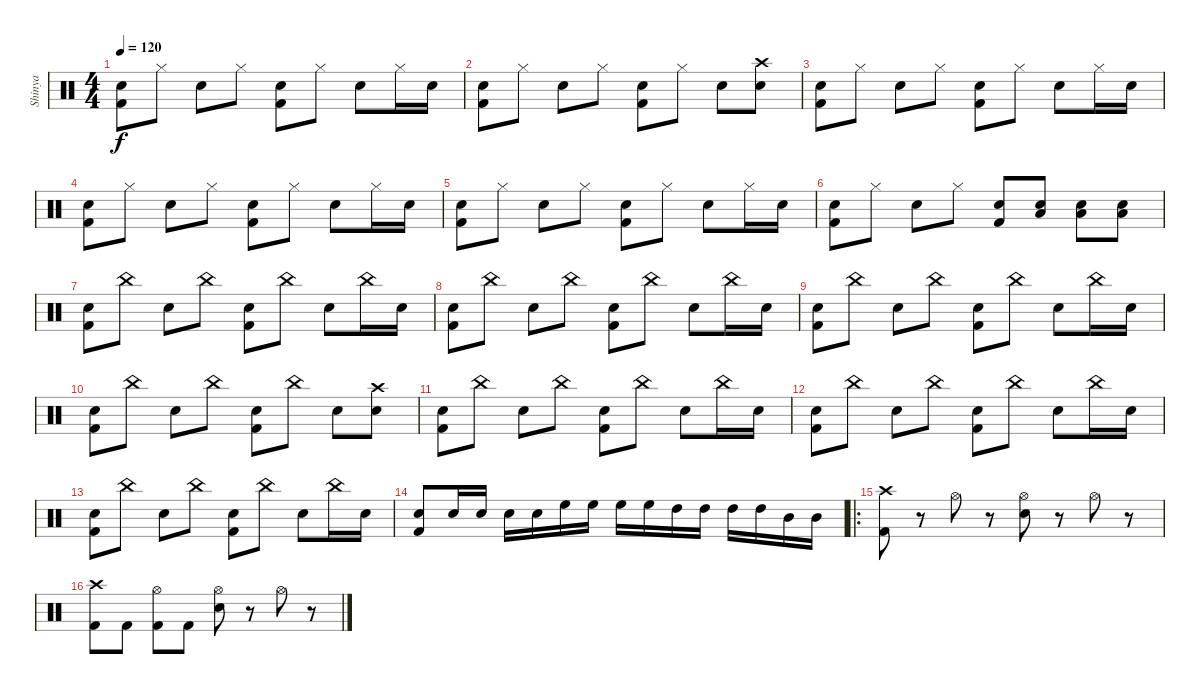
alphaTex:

\track ("Shinya" "Shinya") {instrument percussion}
\staff {score}
\articulation defaults
\ts (4 4)
\tempo 120
\clef neutral
\ks c
("Snare (hit)"{x} "Kick (hit) 2").8{dy f} "Hi-Hat (closed)".8 "Electric Snare (hit)".8 "Hi-Hat (closed)".8 ("Snare (hit)"{x} "Kick (hit) 2").8 "Hi-Hat (closed)".8 "Electric Snare (hit)".8 "Hi-Hat (closed)".16 "Electric Snare (hit)".16 |
("Snare (hit)"{x} "Kick (hit) 2").8 "Hi-Hat (closed)".8 "Electric Snare (hit)".8 "Hi-Hat (closed)".8 ("Snare (hit)"{x} "Kick (hit) 2").8 "Hi-Hat (closed)".8 "Electric Snare (hit)".8 ("Electric Snare (hit)" "Crash high (hit)").8 |
("Snare (hit)"{x} "Kick (hit) 2").8 "Hi-Hat (closed)".8 "Electric Snare (hit)".8 "Hi-Hat (closed)".8 ("Snare (hit)"{x} "Kick (hit) 2").8 "Hi-Hat (closed)".8 "Electric Snare (hit)".8 "Hi-Hat (closed)".16 "Electric Snare (hit)".16 |
("Snare (hit)"{x} "Kick (hit) 2").8 "Hi-Hat (closed)".8 "Electric Snare (hit)".8 "Hi-Hat (closed)".8 ("Snare (hit)"{x} "Kick (hit) 2").8 "Hi-Hat (closed)".8 "Electric Snare (hit)".8 "Hi-Hat (closed)".16 "Electric Snare (hit)".16 |
("Snare (hit)"{x} "Kick (hit) 2").8 "Hi-Hat (closed)".8 "Electric Snare (hit)".8 "Hi-Hat (closed)".8 ("Snare (hit)"{x} "Kick (hit) 2").8 "Hi-Hat (closed)".8 "Electric Snare (hit)".8 "Hi-Hat (closed)".16 "Electric Snare (hit)".16 |
("Snare (hit)"{x} "Kick (hit) 2").8 "Hi-Hat (closed)".8 "Electric Snare (hit)".8 "Hi-Hat (closed)".8 ("Snare (hit)"{x} "Kick (hit) 2").8 ("Electric Snare (hit)" "Low Floor Tom (hit)").8 ("Electric Snare (hit)" "Low Floor Tom (hit)").8 ("Electric Snare (hit)" "Low Floor Tom (hit)").8 |
("Snare (hit)"{x} "Kick (hit) 2").8 "China (hit)".8 "Electric Snare (hit)".8 "China (hit)".8 ("Snare (hit)"{x} "Kick (hit) 2").8 "China (hit)".8 "Electric Snare (hit)".8 "China (hit)".16 "Electric Snare (hit)".16 |
("Snare (hit)"{x} "Kick (hit) 2").8 "China (hit)".8 "Electric Snare (hit)".8 "China (hit)".8 ("Snare (hit)"{x} "Kick (hit) 2").8 "China (hit)".8 "Electric Snare (hit)".8 "China (hit)".16 "Electric Snare (hit)".16 |
("Snare (hit)"{x} "Kick (hit) 2").8 "China (hit)".8 "Electric Snare (hit)".8 "China (hit)".8 ("Snare (hit)"{x} "Kick (hit) 2").8 "China (hit)".8 "Electric Snare (hit)".8 "China (hit)".16 "Electric Snare (hit)".16 |
("Snare (hit)"{x} "Kick (hit) 2").8 "China (hit)".8 "Electric Snare (hit)".8 "China (hit)".8 ("Snare (hit)"{x} "Kick (hit) 2").8 "China (hit)".8 "Electric Snare (hit)".8 ("Electric Snare (hit)" "Crash high (hit)").8 |
("Snare (hit)"{x} "Kick (hit) 2").8 "China (hit)".8 "Electric Snare (hit)".8 "China (hit)".8 ("Snare (hit)"{x} "Kick (hit) 2").8 "China (hit)".8 "Electric Snare (hit)".8 "China (hit)".16 "Electric Snare (hit)".16 |
("Snare (hit)"{x} "Kick (hit) 2").8 "China (hit)".8 "Electric Snare (hit)".8 "China (hit)".8 ("Snare (hit)"{x} "Kick (hit) 2").8 "China (hit)".8 "Electric Snare (hit)".8 "China (hit)".16 "Electric Snare (hit)".16 |
("Snare (hit)"{x} "Kick (hit) 2").8 "China (hit)".8 "Electric Snare (hit)".8 "China (hit)".8 ("Snare (hit)"{x} "Kick (hit) 2").8 "China (hit)".8 "Electric Snare (hit)".8 "China (hit)".16 "Electric Snare (hit)".16 |
("Snare (hit)"{x} "Kick (hit) 2").8 "Electric Snare (hit)".16 "Electric Snare (hit)".16 "Electric Snare (hit)".16 "Electric Snare (hit)".16 "High Floor Tom (hit)".16 "High Floor Tom (hit)".16 "High Floor Tom (hit)".16 "High Floor Tom (hit)".16 "High Tom (hit)".16 "High Tom (hit)".16 "High Tom (hit)".16 "High Tom (hit)".16 "Mid Tom (hit)".16 "Mid Tom (hit)".16 |
\ro
("Crash high (hit)" "Kick (hit) 2").8 r.8 "Hi-Hat (open)".8 r.8 ("Hi-Hat (open)" "Electric Snare (hit)").8 r.8 "Hi-Hat (open)".8 r.8 |
("Crash high (hit)" "Kick (hit) 2").8 "Kick (hit) 2".8 ("Hi-Hat (open)" "Kick (hit) 2").8 "Kick (hit) 2".8 ("Hi-Hat (open)" "Electric Snare (hit)").8 r.8 "Hi-Hat (open)".8 r.8
